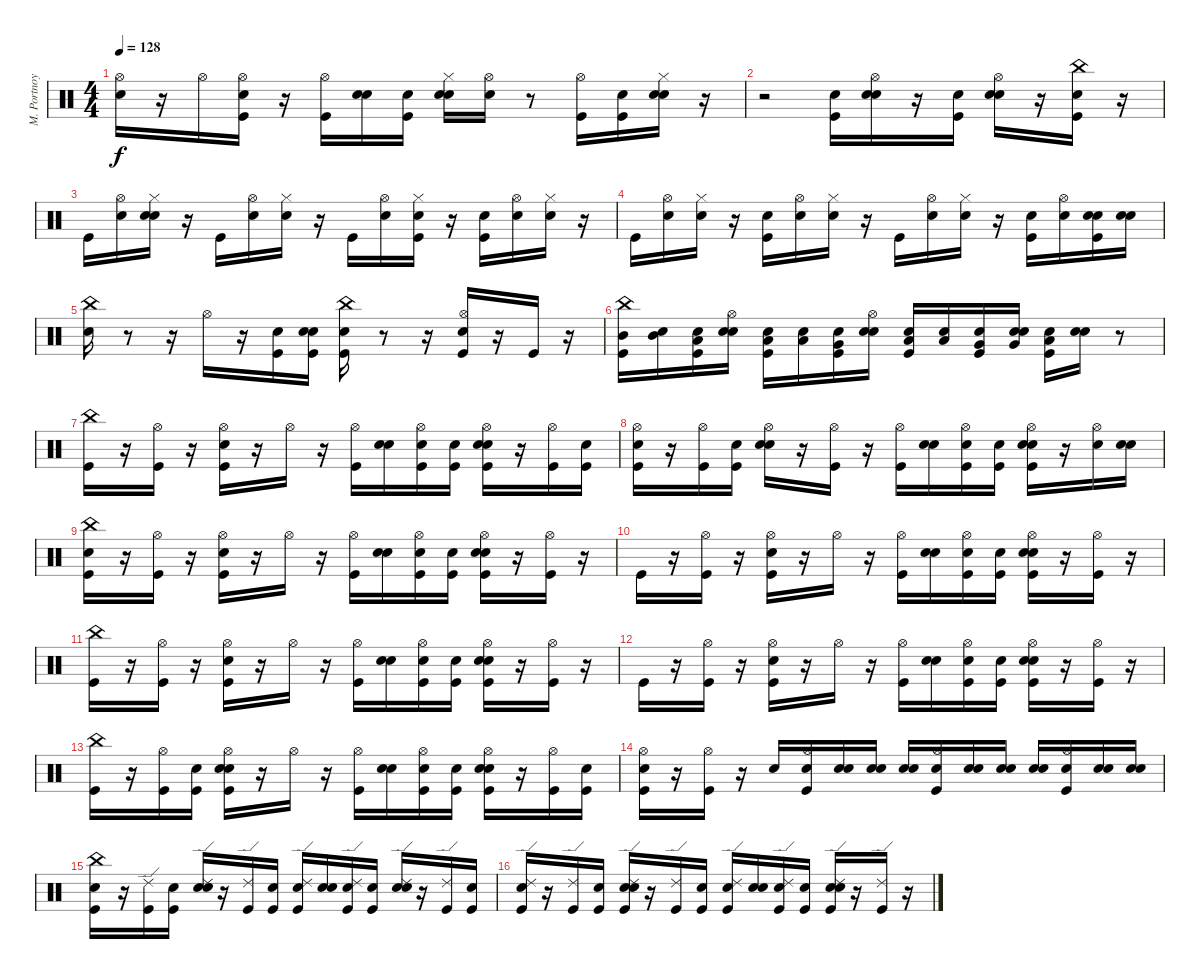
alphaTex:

\track ("M. Portnoy" "M. Portnoy") {instrument percussion}
\staff {score}
\articulation defaults
\ts (4 4)
\tempo 128
\clef neutral
\ks c
("Snare (hit)" "Hi-Hat (open)").16{dy f} r.16 "Hi-Hat (open)".16 ("Snare (hit)" "Kick (hit)" "Hi-Hat (open)").16 r.16 ("Kick (hit)" "Hi-Hat (open)").16 ("Snare (hit)" "Snare (hit) 2").16 ("Snare (hit)" "Kick (hit)").16 ("Snare (hit)" "Snare (hit) 2" "Hi-Hat (closed)").16 ("Snare (hit)" "Hi-Hat (open)").16 r.8 ("Kick (hit)" "Hi-Hat (open)").16 ("Snare (hit)" "Kick (hit)").16 ("Snare (hit)" "Snare (hit) 2" "Hi-Hat (closed)").16 r.16 |
r.2 ("Kick (hit)" "Snare (hit) 2").16 ("Snare (hit)" "Snare (hit) 2" "Hi-Hat (open)").16 r.16 ("Kick (hit)" "Snare (hit) 2").16 ("Snare (hit)" "Snare (hit) 2" "Hi-Hat (open)").16 r.16 ("Kick (hit)" "Snare (hit) 2" "China (hit)").16 r.16 |
"Kick (hit)".16 ("Snare (hit)" "Hi-Hat (open)").16 ("Snare (hit)" "Snare (hit) 2" "Hi-Hat (closed)").16 r.16 "Kick (hit)".16 ("Snare (hit)" "Hi-Hat (open)").16 ("Snare (hit)" "Hi-Hat (closed)").16 r.16 "Kick (hit)".16 ("Snare (hit)" "Hi-Hat (open)").16 ("Snare (hit)" "Kick (hit)" "Hi-Hat (closed)").16 r.16 ("Kick (hit)" "Snare (hit) 2").16 ("Snare (hit)" "Hi-Hat (open)").16 ("Snare (hit)" "Hi-Hat (closed)").16 r.16 |
"Kick (hit)".16 ("Snare (hit)" "Hi-Hat (open)").16 ("Snare (hit)" "Hi-Hat (closed)").16 r.16 ("Kick (hit)" "Snare (hit) 2").16 ("Snare (hit)" "Hi-Hat (open)").16 ("Snare (hit)" "Hi-Hat (closed)").16 r.16 "Kick (hit)".16 ("Snare (hit)" "Hi-Hat (open)").16 ("Snare (hit)" "Hi-Hat (closed)").16 r.16 ("Kick (hit)" "Snare (hit) 2").16 ("Snare (hit)" "Hi-Hat (open)").16 ("Snare (hit)" "Kick (hit)" "Snare (hit) 2").16 ("Snare (hit)" "Snare (hit) 2").16 |
("Snare (hit)" "China (hit)").16 r.8 r.16 "Hi-Hat (open)".16 r.16 ("Kick (hit)" "Snare (hit) 2").16 ("Snare (hit)" "Kick (hit)" "Snare (hit) 2").16 ("Snare (hit)" "Kick (hit)" "China (hit)").16 r.8 r.16 ("Kick (hit)" "Snare (hit) 2" "Hi-Hat (open)").16 r.16 "Kick (hit)".16 r.16 |
("Kick (hit)" "Mid Tom (hit)" "China (hit)").16 ("Snare (hit)" "Mid Tom (hit)").16 ("Snare (hit)" "Kick (hit)" "Low Tom (hit)").16 ("Snare (hit)" "Snare (hit) 2" "Hi-Hat (open)").16 ("Snare (hit)" "Kick (hit)" "Low Tom (hit)").16 ("Snare (hit)" "Low Tom (hit)").16 ("Snare (hit)" "Kick (hit)" "Very Low Tom (hit)").16 ("Snare (hit)" "Snare (hit) 2" "Hi-Hat (open)").16 ("Snare (hit)" "Kick (hit)" "Low Tom (hit)").16 ("Snare (hit)" "Low Tom (hit)").16 ("Snare (hit)" "Kick (hit)" "Very Low Tom (hit)").16 ("Snare (hit)" "Snare (hit) 2" "Very Low Tom (hit)").16 ("Snare (hit)" "Kick (hit)" "Low Floor Tom (hit)").16 ("Snare (hit)" "Snare (hit) 2").16 r.8 |
("Kick (hit)" "China (hit)").16 r.16 ("Kick (hit)" "Hi-Hat (open)").16 r.16 ("Kick (hit)" "Snare (hit) 2" "Hi-Hat (open)").16 r.16 "Hi-Hat (open)".16 r.16 ("Kick (hit)" "Hi-Hat (open)").16 ("Snare (hit)" "Snare (hit) 2").16 ("Snare (hit)" "Kick (hit)" "Hi-Hat (open)").16 ("Snare (hit)" "Kick (hit)").16 ("Snare (hit)" "Kick (hit)" "Snare (hit) 2" "Hi-Hat (open)").16 r.16 ("Kick (hit)" "Hi-Hat (open)").16 ("Snare (hit)" "Kick (hit)").16 |
("Snare (hit)" "Kick (hit)" "Hi-Hat (open)").16 r.16 ("Kick (hit)" "Hi-Hat (open)").16 ("Snare (hit)" "Kick (hit)").16 ("Snare (hit)" "Snare (hit) 2" "Hi-Hat (open)").16 r.16 ("Kick (hit)" "Hi-Hat (open)").16 r.16 ("Kick (hit)" "Hi-Hat (open)").16 ("Snare (hit)" "Snare (hit) 2").16 ("Snare (hit)" "Kick (hit)" "Hi-Hat (open)").16 ("Snare (hit)" "Kick (hit)").16 ("Snare (hit)" "Kick (hit)" "Snare (hit) 2" "Hi-Hat (open)").16 r.16 ("Snare (hit) 2" "Hi-Hat (open)").16 ("Snare (hit)" "Snare (hit) 2").16 |
("Snare (hit)" "Kick (hit)" "China (hit)").16 r.16 ("Kick (hit)" "Hi-Hat (open)").16 r.16 ("Kick (hit)" "Snare (hit) 2" "Hi-Hat (open)").16 r.16 "Hi-Hat (open)".16 r.16 ("Kick (hit)" "Hi-Hat (open)").16 ("Snare (hit)" "Snare (hit) 2").16 ("Snare (hit)" "Kick (hit)" "Hi-Hat (open)").16 ("Snare (hit)" "Kick (hit)").16 ("Snare (hit)" "Kick (hit)" "Snare (hit) 2" "Hi-Hat (open)").16 r.16 ("Kick (hit)" "Hi-Hat (open)").16 r.16 |
"Kick (hit)".16 r.16 ("Kick (hit)" "Hi-Hat (open)").16 r.16 ("Kick (hit)" "Snare (hit) 2" "Hi-Hat (open)").16 r.16 "Hi-Hat (open)".16 r.16 ("Kick (hit)" "Hi-Hat (open)").16 ("Snare (hit)" "Snare (hit) 2").16 ("Snare (hit)" "Kick (hit)" "Hi-Hat (open)").16 ("Snare (hit)" "Kick (hit)").16 ("Snare (hit)" "Kick (hit)" "Snare (hit) 2" "Hi-Hat (open)").16 r.16 ("Kick (hit)" "Hi-Hat (open)").16 r.16 |
("Kick (hit)" "China (hit)").16 r.16 ("Kick (hit)" "Hi-Hat (open)").16 r.16 ("Kick (hit)" "Snare (hit) 2" "Hi-Hat (open)").16 r.16 "Hi-Hat (open)".16 r.16 ("Kick (hit)" "Hi-Hat (open)").16 ("Snare (hit)" "Snare (hit) 2").16 ("Snare (hit)" "Kick (hit)" "Hi-Hat (open)").16 ("Snare (hit)" "Kick (hit)").16 ("Snare (hit)" "Kick (hit)" "Snare (hit) 2" "Hi-Hat (open)").16 r.16 ("Kick (hit)" "Hi-Hat (open)").16 r.16 |
"Kick (hit)".16 r.16 ("Kick (hit)" "Hi-Hat (open)").16 r.16 ("Kick (hit)" "Snare (hit) 2" "Hi-Hat (open)").16 r.16 "Hi-Hat (open)".16 r.16 ("Kick (hit)" "Hi-Hat (open)").16 ("Snare (hit)" "Snare (hit) 2").16 ("Snare (hit)" "Kick (hit)" "Hi-Hat (open)").16 ("Snare (hit)" "Kick (hit)").16 ("Snare (hit)" "Kick (hit)" "Snare (hit) 2" "Hi-Hat (open)").16 r.16 ("Kick (hit)" "Hi-Hat (open)").16 r.16 |
("Kick (hit)" "China (hit)").16 r.16 ("Kick (hit)" "Hi-Hat (open)").16 ("Snare (hit)" "Kick (hit)").16 ("Snare (hit)" "Kick (hit)" "Snare (hit) 2" "Hi-Hat (open)").16 r.16 "Hi-Hat (open)".16 r.16 ("Kick (hit)" "Hi-Hat (open)").16 ("Snare (hit)" "Snare (hit) 2").16 ("Snare (hit)" "Kick (hit)" "Hi-Hat (open)").16 ("Snare (hit)" "Kick (hit)").16 ("Snare (hit)" "Kick (hit)" "Snare (hit) 2" "Hi-Hat (open)").16 r.16 ("Kick (hit)" "Hi-Hat (open)").16 ("Snare (hit)" "Kick (hit)").16 |
("Snare (hit)" "Kick (hit)" "Hi-Hat (open)").16 r.16 ("Kick (hit)" "Hi-Hat (open)").16 r.16 "Snare (hit) 2".16 ("Snare (hit)" "Kick (hit)" "Hi-Hat (open)").16 ("Snare (hit)" "Snare (hit) 2").16 ("Snare (hit)" "Snare (hit) 2").16 ("Snare (hit)" "Snare (hit) 2").16 ("Snare (hit)" "Kick (hit)" "Hi-Hat (open)").16 ("Snare (hit)" "Snare (hit) 2").16 ("Snare (hit)" "Snare (hit) 2").16 ("Snare (hit)" "Snare (hit) 2").16 ("Snare (hit)" "Kick (hit)" "Hi-Hat (open)").16 ("Snare (hit)" "Snare (hit) 2").16 ("Snare (hit)" "Snare (hit) 2").16 |
("Snare (hit)" "Kick (hit)" "China (hit)").16 r.16 ("Kick (hit)" "Ride (edge) 2").16 ("Snare (hit)" "Kick (hit)").16 ("Snare (hit)" "Snare (hit) 2" "Ride (edge) 2").16 r.16 ("Kick (hit)" "Ride (edge) 2").16 ("Snare (hit)" "Kick (hit)").16 ("Snare (hit)" "Kick (hit)" "Ride (edge) 2").16 ("Snare (hit)" "Snare (hit) 2").16 ("Snare (hit)" "Kick (hit)" "Ride (edge) 2").16 ("Snare (hit)" "Kick (hit)").16 ("Snare (hit)" "Snare (hit) 2" "Ride (edge) 2").16 r.16 ("Kick (hit)" "Ride (edge) 2").16 ("Snare (hit)" "Kick (hit)").16 |
("Snare (hit)" "Kick (hit)" "Ride (edge) 2").16 r.16 ("Kick (hit)" "Ride (edge) 2").16 ("Snare (hit)" "Kick (hit)").16 ("Snare (hit)" "Kick (hit)" "Snare (hit) 2" "Ride (edge) 2").16 r.16 ("Kick (hit)" "Ride (edge) 2").16 ("Snare (hit)" "Kick (hit)").16 ("Snare (hit)" "Kick (hit)" "Ride (edge) 2").16 ("Snare (hit)" "Snare (hit) 2").16 ("Snare (hit)" "Kick (hit)" "Ride (edge) 2").16 ("Snare (hit)" "Kick (hit)").16 ("Snare (hit)" "Kick (hit)" "Snare (hit) 2" "Ride (edge) 2").16 r.16 ("Kick (hit)" "Ride (edge) 2").16 r.16
